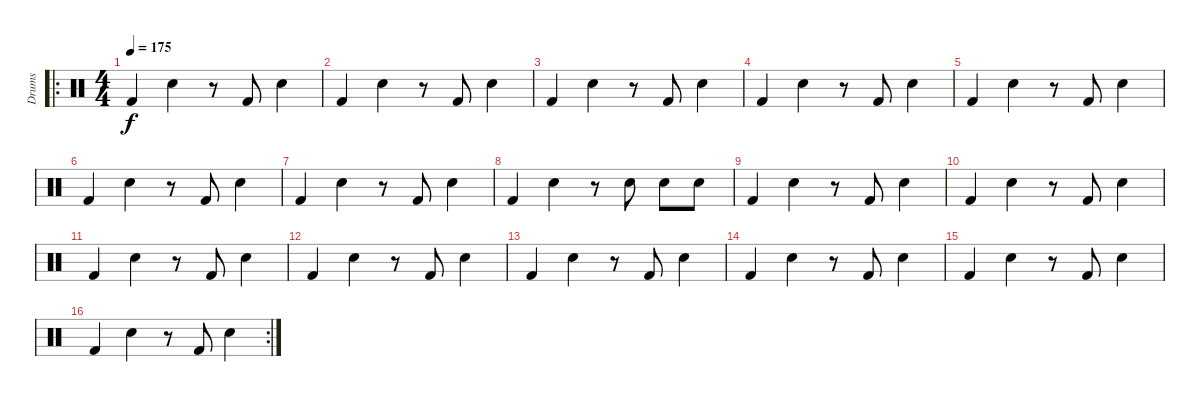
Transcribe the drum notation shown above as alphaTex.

\track ("Drums" "Drums") {instrument percussion}
\staff {score}
\articulation defaults
\ro
\ts (4 4)
\tempo 175
\clef neutral
\ks c "Kick (hit) 2".4{dy f} "Electric Snare (hit)".4
r.8 "Kick (hit) 2".8 "Electric Snare (hit)".4 |
"Kick (hit) 2".4 "Electric Snare (hit)".4 r.8 "Kick (hit) 2".8 "Electric Snare (hit)".4 |
"Kick (hit) 2".4 "Electric Snare (hit)".4 r.8 "Kick (hit) 2".8 "Electric Snare (hit)".4 |
"Kick (hit) 2".4 "Electric Snare (hit)".4 r.8 "Kick (hit) 2".8 "Electric Snare (hit)".4 |
"Kick (hit) 2".4 "Electric Snare (hit)".4 r.8 "Kick (hit) 2".8 "Electric Snare (hit)".4 |
"Kick (hit) 2".4 "Electric Snare (hit)".4 r.8 "Kick (hit) 2".8 "Electric Snare (hit)".4 |
"Kick (hit) 2".4 "Electric Snare (hit)".4 r.8 "Kick (hit) 2".8 "Electric Snare (hit)".4 |
"Kick (hit) 2".4 "Electric Snare (hit)".4 r.8 "Electric Snare (hit)".8 "Electric Snare (hit)".8 "Electric Snare (hit)".8 |
"Kick (hit) 2".4 "Electric Snare (hit)".4 r.8 "Kick (hit) 2".8 "Electric Snare (hit)".4 |
"Kick (hit) 2".4 "Electric Snare (hit)".4 r.8 "Kick (hit) 2".8 "Electric Snare (hit)".4 |
"Kick (hit) 2".4 "Electric Snare (hit)".4 r.8 "Kick (hit) 2".8 "Electric Snare (hit)".4 |
"Kick (hit) 2".4 "Electric Snare (hit)".4 r.8 "Kick (hit) 2".8 "Electric Snare (hit)".4 |
"Kick (hit) 2".4 "Electric Snare (hit)".4 r.8 "Kick (hit) 2".8 "Electric Snare (hit)".4 |
"Kick (hit) 2".4 "Electric Snare (hit)".4 r.8 "Kick (hit) 2".8 "Electric Snare (hit)".4 |
"Kick (hit) 2".4 "Electric Snare (hit)".4 r.8 "Kick (hit) 2".8 "Electric Snare (hit)".4 |
\rc 2 "Kick (hit) 2".4 "Electric Snare (hit)".4
r.8 "Kick (hit) 2".8 "Electric Snare (hit)".4
